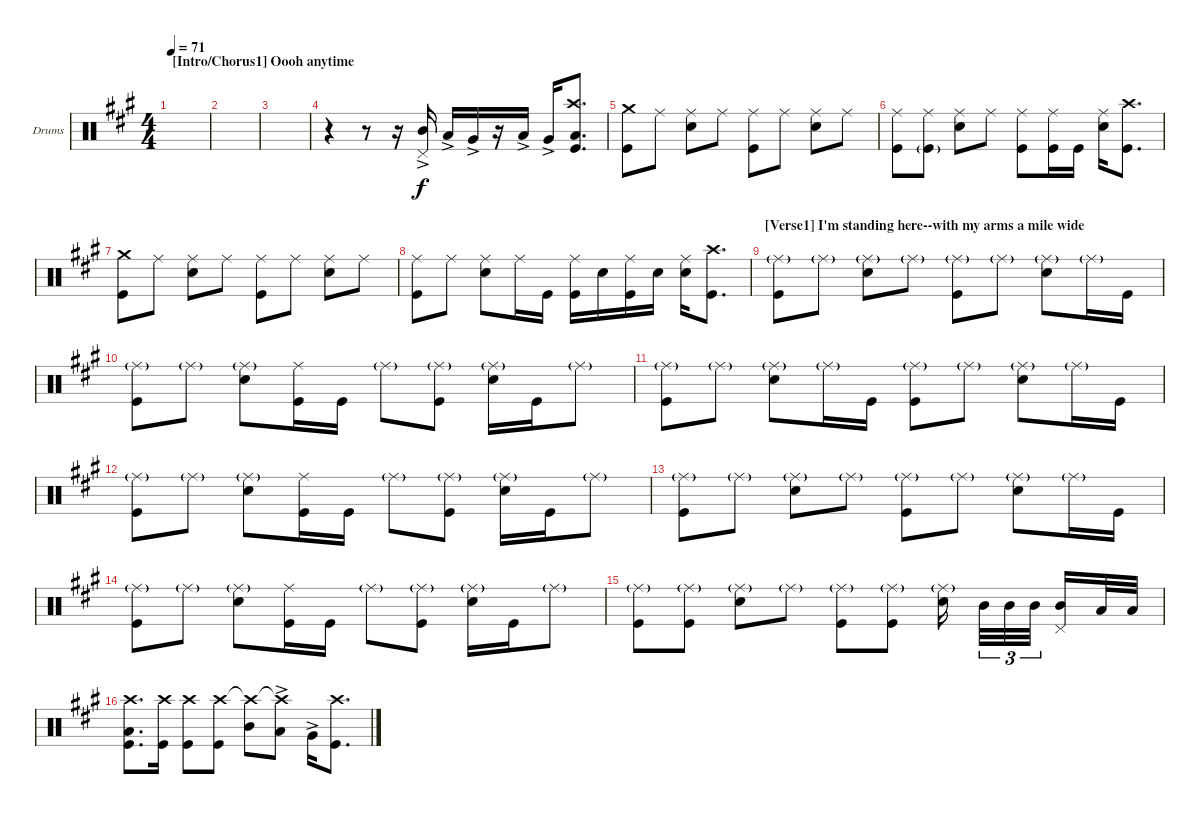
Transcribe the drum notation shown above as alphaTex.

\defaultSystemsLayout 4
\bracketExtendMode groupsimilarinstruments
\firstSystemTrackNameOrientation horizontal
\otherSystemsTrackNameOrientation horizontal
\track ("Drumkit" "Drums") {instrument percussion}
\staff {score}
\articulation defaults
\ts (4 4)
\section ("" "[Intro/Chorus1] Oooh anytime")
\tempo 71
\clef neutral
\ks a
|
|
|
r.4 r.8 r.16 ("Mid Tom (hit)"{ac} "Pedal Hi-Hat (hit)").16 "Low Tom (hit)"{ac}.16 "Very Low Tom (hit)"{ac}.16 r.16 "Low Tom (hit)"{ac}.16 "Very Low Tom (hit)"{ac}.16 ("Crash high (hit)" "Kick (hit)" "Low Tom (hit)").8{d} |
("Kick (hit)" "Crash medium (hit)").8 "Ride (middle)".8 ("Ride (middle)" "Snare (hit) 2").8 "Ride (middle)".8 ("Ride (middle)" "Kick (hit)").8 "Ride (middle)".8 ("Ride (middle)" "Snare (hit) 2").8 "Ride (middle)".8 |
("Ride (middle)" "Kick (hit)").8 ("Ride (middle)" "Kick (hit)"{g}).8 ("Ride (middle)" "Snare (hit) 2").8 "Ride (middle)".8 ("Ride (middle)" "Kick (hit)").8 ("Ride (middle)" "Kick (hit)").16 "Kick (hit)".16 ("Ride (middle)" "Snare (hit) 2").16 ("Crash high (hit)" "Kick (hit)").8{d} |
("Kick (hit)" "Crash medium (hit)").8 "Ride (middle)".8 ("Ride (middle)" "Snare (hit) 2").8 "Ride (middle)".8 ("Ride (middle)" "Kick (hit)").8 "Ride (middle)".8 ("Ride (middle)" "Snare (hit) 2").8 "Ride (middle)".8 |
("Ride (middle)" "Kick (hit)").8 "Ride (middle)".8 ("Ride (middle)" "Snare (hit) 2").8 "Ride (middle)".16 "Kick (hit)".16 ("Ride (middle)" "Kick (hit)").16 "Snare (hit) 2".16 ("Ride (middle)" "Kick (hit)").16 "Snare (hit) 2".16 ("Ride (middle)" "Snare (hit) 2").16 ("Crash high (hit)" "Kick (hit)").8{d} |
\section ("" "[Verse1] I'm standing here--with my arms a mile wide")
("Ride (middle)"{g} "Kick (hit)").8 "Ride (middle)"{g}.8 ("Ride (middle)"{g} "Snare (hit) 2").8 "Ride (middle)"{g}.8 ("Ride (middle)"{g} "Kick (hit)").8 "Ride (middle)"{g}.8 ("Ride (middle)"{g} "Snare (hit) 2").8 "Ride (middle)"{g}.16 "Kick (hit)".16 |
("Ride (middle)"{g} "Kick (hit)").8 "Ride (middle)"{g}.8 ("Ride (middle)"{g} "Snare (hit) 2").8 ("Kick (hit)" "Ride (middle)").16 "Kick (hit)".16 "Ride (middle)"{g}.8 ("Ride (middle)"{g} "Kick (hit)").8 ("Ride (middle)"{g} "Snare (hit) 2").16 "Kick (hit)".16 "Ride (middle)"{g}.8 |
("Ride (middle)"{g} "Kick (hit)").8 "Ride (middle)"{g}.8 ("Ride (middle)"{g} "Snare (hit) 2").8 "Ride (middle)"{g}.16 "Kick (hit)".16 ("Ride (middle)"{g} "Kick (hit)").8 "Ride (middle)"{g}.8 ("Ride (middle)"{g} "Snare (hit) 2").8 "Ride (middle)"{g}.16 "Kick (hit)".16 |
("Ride (middle)"{g} "Kick (hit)").8 "Ride (middle)"{g}.8 ("Ride (middle)"{g} "Snare (hit) 2").8 ("Kick (hit)" "Ride (middle)").16 "Kick (hit)".16 "Ride (middle)"{g}.8 ("Ride (middle)"{g} "Kick (hit)").8 ("Ride (middle)"{g} "Snare (hit) 2").16 "Kick (hit)".16 "Ride (middle)"{g}.8 |
("Ride (middle)"{g} "Kick (hit)").8 "Ride (middle)"{g}.8 ("Ride (middle)"{g} "Snare (hit) 2").8 "Ride (middle)"{g}.8 ("Ride (middle)"{g} "Kick (hit)").8 "Ride (middle)"{g}.8 ("Ride (middle)"{g} "Snare (hit) 2").8 "Ride (middle)"{g}.16 "Kick (hit)".16 |
("Ride (middle)"{g} "Kick (hit)").8 "Ride (middle)"{g}.8 ("Ride (middle)"{g} "Snare (hit) 2").8 ("Kick (hit)" "Ride (middle)").16 "Kick (hit)".16 "Ride (middle)"{g}.8 ("Ride (middle)"{g} "Kick (hit)").8 ("Ride (middle)"{g} "Snare (hit) 2").16 "Kick (hit)".16 "Ride (middle)"{g}.8 |
("Ride (middle)"{g} "Kick (hit)").8 ("Ride (middle)"{g} "Kick (hit)").8 ("Ride (middle)"{g} "Snare (hit) 2").8 "Ride (middle)"{g}.8 ("Ride (middle)"{g} "Kick (hit)").8 ("Ride (middle)"{g} "Kick (hit)").8 ("Ride (middle)"{g} "Snare (hit) 2").16 "Mid Tom (hit)".32{tu (3 2)} "Mid Tom (hit)".32{tu (3 2)} "Mid Tom (hit)".32{tu (3 2)} ("Mid Tom (hit)" "Pedal Hi-Hat (hit)").16 "Low Tom (hit)".32 "Low Tom (hit)".32 |
("Kick (hit)" "Crash high (hit)" "Low Tom (hit)").8{d} ("Kick (hit)" "Crash high (hit)").16 ("Kick (hit)" "Crash high (hit)").8 ("Kick (hit)" "Crash high (hit)").8 ("Mid Tom (hit)" "Crash high (hit)"{t}).8 ("Low Tom (hit)"{ac} "Crash high (hit)"{t}).8 "Very Low Tom (hit)"{ac}.16 ("Kick (hit)" "Crash high (hit)").8{d}
